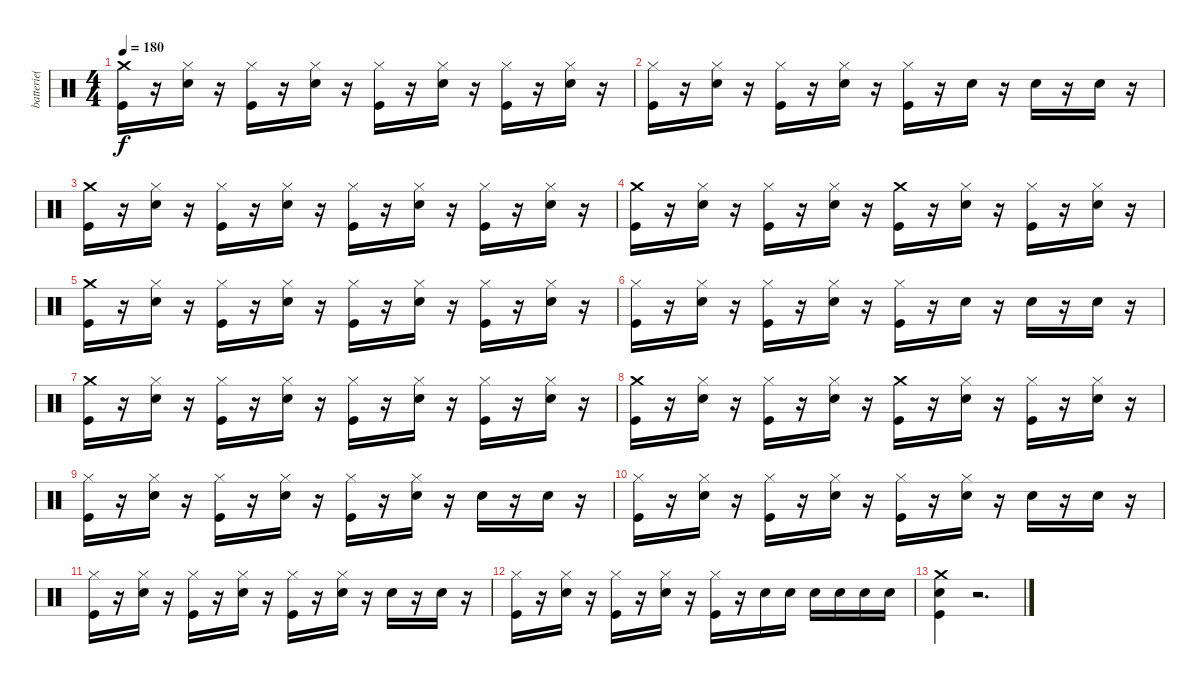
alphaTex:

\track ("batterie( Shawn )" "batterie( ") {instrument percussion}
\staff {score}
\articulation defaults
\ts (4 4)
\tempo 180
\clef neutral
\ks c
("Crash medium (hit)" "Kick (hit)").16{dy f} r.16 ("Hi-Hat (closed)" "Snare (hit) 2").16 r.16 ("Hi-Hat (closed)" "Kick (hit)").16 r.16 ("Hi-Hat (closed)" "Snare (hit) 2").16 r.16 ("Hi-Hat (closed)" "Kick (hit)").16 r.16 ("Hi-Hat (closed)" "Snare (hit) 2").16 r.16 ("Hi-Hat (closed)" "Kick (hit)").16 r.16 ("Hi-Hat (closed)" "Snare (hit) 2").16 r.16 |
("Hi-Hat (closed)" "Kick (hit)").16 r.16 ("Hi-Hat (closed)" "Snare (hit) 2").16 r.16 ("Hi-Hat (closed)" "Kick (hit)").16 r.16 ("Hi-Hat (closed)" "Snare (hit) 2").16 r.16 ("Hi-Hat (closed)" "Kick (hit)").16 r.16 "Snare (hit) 2".16 r.16 "Snare (hit) 2".16 r.16 "Snare (hit) 2".16 r.16 |
("Crash medium (hit)" "Kick (hit)").16 r.16 ("Hi-Hat (closed)" "Snare (hit) 2").16 r.16 ("Hi-Hat (closed)" "Kick (hit)").16 r.16 ("Hi-Hat (closed)" "Snare (hit) 2").16 r.16 ("Hi-Hat (closed)" "Kick (hit)").16 r.16 ("Hi-Hat (closed)" "Snare (hit) 2").16 r.16 ("Hi-Hat (closed)" "Kick (hit)").16 r.16 ("Hi-Hat (closed)" "Snare (hit) 2").16 r.16 |
("Crash medium (hit)" "Kick (hit)").16 r.16 ("Hi-Hat (closed)" "Snare (hit) 2").16 r.16 ("Hi-Hat (closed)" "Kick (hit)").16 r.16 ("Hi-Hat (closed)" "Snare (hit) 2").16 r.16 ("Crash medium (hit)" "Kick (hit)").16 r.16 ("Hi-Hat (closed)" "Snare (hit) 2").16 r.16 ("Hi-Hat (closed)" "Kick (hit)").16 r.16 ("Hi-Hat (closed)" "Snare (hit) 2").16 r.16 |
("Crash medium (hit)" "Kick (hit)").16 r.16 ("Hi-Hat (closed)" "Snare (hit) 2").16 r.16 ("Hi-Hat (closed)" "Kick (hit)").16 r.16 ("Hi-Hat (closed)" "Snare (hit) 2").16 r.16 ("Hi-Hat (closed)" "Kick (hit)").16 r.16 ("Hi-Hat (closed)" "Snare (hit) 2").16 r.16 ("Hi-Hat (closed)" "Kick (hit)").16 r.16 ("Hi-Hat (closed)" "Snare (hit) 2").16 r.16 |
("Hi-Hat (closed)" "Kick (hit)").16 r.16 ("Hi-Hat (closed)" "Snare (hit) 2").16 r.16 ("Hi-Hat (closed)" "Kick (hit)").16 r.16 ("Hi-Hat (closed)" "Snare (hit) 2").16 r.16 ("Hi-Hat (closed)" "Kick (hit)").16 r.16 "Snare (hit) 2".16 r.16 "Snare (hit) 2".16 r.16 "Snare (hit) 2".16 r.16 |
("Crash medium (hit)" "Kick (hit)").16 r.16 ("Hi-Hat (closed)" "Snare (hit) 2").16 r.16 ("Hi-Hat (closed)" "Kick (hit)").16 r.16 ("Hi-Hat (closed)" "Snare (hit) 2").16 r.16 ("Hi-Hat (closed)" "Kick (hit)").16 r.16 ("Hi-Hat (closed)" "Snare (hit) 2").16 r.16 ("Hi-Hat (closed)" "Kick (hit)").16 r.16 ("Hi-Hat (closed)" "Snare (hit) 2").16 r.16 |
("Crash medium (hit)" "Kick (hit)").16 r.16 ("Hi-Hat (closed)" "Snare (hit) 2").16 r.16 ("Hi-Hat (closed)" "Kick (hit)").16 r.16 ("Hi-Hat (closed)" "Snare (hit) 2").16 r.16 ("Crash medium (hit)" "Kick (hit)").16 r.16 ("Hi-Hat (closed)" "Snare (hit) 2").16 r.16 ("Hi-Hat (closed)" "Kick (hit)").16 r.16 ("Hi-Hat (closed)" "Snare (hit) 2").16 r.16 |
("Hi-Hat (closed)" "Kick (hit)").16 r.16 ("Hi-Hat (closed)" "Snare (hit) 2").16 r.16 ("Hi-Hat (closed)" "Kick (hit)").16 r.16 ("Hi-Hat (closed)" "Snare (hit) 2").16 r.16 ("Hi-Hat (closed)" "Kick (hit)").16 r.16 ("Hi-Hat (closed)" "Snare (hit) 2").16 r.16 "Snare (hit) 2".16 r.16 "Snare (hit) 2".16 r.16 |
("Hi-Hat (closed)" "Kick (hit)").16 r.16 ("Hi-Hat (closed)" "Snare (hit) 2").16 r.16 ("Hi-Hat (closed)" "Kick (hit)").16 r.16 ("Hi-Hat (closed)" "Snare (hit) 2").16 r.16 ("Hi-Hat (closed)" "Kick (hit)").16 r.16 ("Hi-Hat (closed)" "Snare (hit) 2").16 r.16 "Snare (hit) 2".16 r.16 "Snare (hit) 2".16 r.16 |
("Hi-Hat (closed)" "Kick (hit)").16 r.16 ("Hi-Hat (closed)" "Snare (hit) 2").16 r.16 ("Hi-Hat (closed)" "Kick (hit)").16 r.16 ("Hi-Hat (closed)" "Snare (hit) 2").16 r.16 ("Hi-Hat (closed)" "Kick (hit)").16 r.16 ("Hi-Hat (closed)" "Snare (hit) 2").16 r.16 "Snare (hit) 2".16 r.16 "Snare (hit) 2".16 r.16 |
("Hi-Hat (closed)" "Kick (hit)").16 r.16 ("Hi-Hat (closed)" "Snare (hit) 2").16 r.16 ("Hi-Hat (closed)" "Kick (hit)").16 r.16 ("Hi-Hat (closed)" "Snare (hit) 2").16 r.16 ("Hi-Hat (closed)" "Kick (hit)").16 r.16 "Snare (hit) 2".16 "Snare (hit) 2".16 "Snare (hit) 2".16 "Snare (hit) 2".16 "Snare (hit) 2".16 "Snare (hit) 2".16 |
("Crash medium (hit)" "Snare (hit) 2" "Kick (hit)").4 r.2{d}
